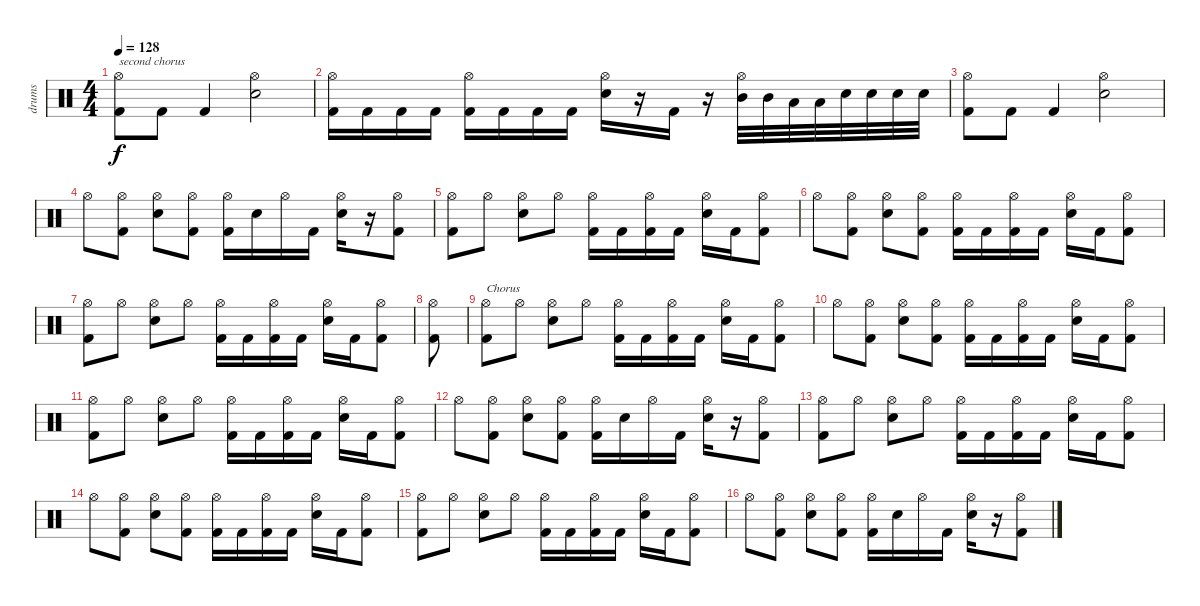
\track ("drums" "drums") {instrument percussion}
\staff {score}
\articulation defaults
\ts (4 4)
\tempo 128
\clef neutral
\ks c
("Hi-Hat (open)" "Kick (hit) 2").8{txt "second chorus" dy f} "Kick (hit) 2".8 "Kick (hit) 2".4 ("Hi-Hat (open)" "Snare (hit) 2").2 |
("Hi-Hat (open)" "Kick (hit) 2").16 "Kick (hit) 2".16 "Kick (hit) 2".16 "Kick (hit) 2".16 ("Hi-Hat (open)" "Kick (hit) 2").16 "Kick (hit) 2".16 "Kick (hit) 2".16 "Kick (hit) 2".16 ("Hi-Hat (open)" "Snare (hit) 2").16 r.16 "Kick (hit) 2".16 r.16 ("Hi-Hat (open)" "Mid Tom (hit)").32 "Mid Tom (hit)".32 "Low Tom (hit)".32 "Low Tom (hit)".32 "Snare (hit) 2".32 "Snare (hit) 2".32 "Snare (hit) 2".32 "Snare (hit) 2".32 |
("Hi-Hat (open)" "Kick (hit) 2").8 "Kick (hit) 2".8 "Kick (hit) 2".4 ("Hi-Hat (open)" "Snare (hit) 2").2 |
"Hi-Hat (open)".8 ("Hi-Hat (open)" "Kick (hit) 2").8 ("Hi-Hat (open)" "Snare (hit) 2").8 ("Hi-Hat (open)" "Kick (hit) 2").8 ("Hi-Hat (open)" "Kick (hit) 2").16 "Snare (hit) 2".16 "Hi-Hat (open)".16 "Kick (hit) 2".16 ("Hi-Hat (open)" "Snare (hit) 2").16 r.16 ("Hi-Hat (open)" "Kick (hit) 2").8 |
("Hi-Hat (open)" "Kick (hit) 2").8 "Hi-Hat (open)".8 ("Hi-Hat (open)" "Snare (hit) 2").8 "Hi-Hat (open)".8 ("Hi-Hat (open)" "Kick (hit) 2").16 "Kick (hit) 2".16 ("Hi-Hat (open)" "Kick (hit) 2").16 "Kick (hit) 2".16 ("Hi-Hat (open)" "Snare (hit) 2").16 "Kick (hit) 2".16 ("Hi-Hat (open)" "Kick (hit) 2").8 |
"Hi-Hat (open)".8 ("Hi-Hat (open)" "Kick (hit) 2").8 ("Hi-Hat (open)" "Snare (hit) 2").8 ("Hi-Hat (open)" "Kick (hit) 2").8 ("Hi-Hat (open)" "Kick (hit) 2").16 "Kick (hit) 2".16 ("Hi-Hat (open)" "Kick (hit) 2").16 "Kick (hit) 2".16 ("Hi-Hat (open)" "Snare (hit) 2").16 "Kick (hit) 2".16 ("Hi-Hat (open)" "Kick (hit) 2").8 |
("Hi-Hat (open)" "Kick (hit) 2").8 "Hi-Hat (open)".8 ("Hi-Hat (open)" "Snare (hit) 2").8 "Hi-Hat (open)".8 ("Hi-Hat (open)" "Kick (hit) 2").16 "Kick (hit) 2".16 ("Hi-Hat (open)" "Kick (hit) 2").16 "Kick (hit) 2".16 ("Hi-Hat (open)" "Snare (hit) 2").16 "Kick (hit) 2".16 ("Hi-Hat (open)" "Kick (hit) 2").8 |
("Hi-Hat (open)" "Kick (hit) 2").8 |
("Hi-Hat (open)" "Kick (hit) 2").8{txt "Chorus"} "Hi-Hat (open)".8 ("Hi-Hat (open)" "Snare (hit) 2").8 "Hi-Hat (open)".8 ("Hi-Hat (open)" "Kick (hit) 2").16 "Kick (hit) 2".16 ("Hi-Hat (open)" "Kick (hit) 2").16 "Kick (hit) 2".16 ("Hi-Hat (open)" "Snare (hit) 2").16 "Kick (hit) 2".16 ("Hi-Hat (open)" "Kick (hit) 2").8 |
"Hi-Hat (open)".8 ("Hi-Hat (open)" "Kick (hit) 2").8 ("Hi-Hat (open)" "Snare (hit) 2").8 ("Hi-Hat (open)" "Kick (hit) 2").8 ("Hi-Hat (open)" "Kick (hit) 2").16 "Kick (hit) 2".16 ("Hi-Hat (open)" "Kick (hit) 2").16 "Kick (hit) 2".16 ("Hi-Hat (open)" "Snare (hit) 2").16 "Kick (hit) 2".16 ("Hi-Hat (open)" "Kick (hit) 2").8 |
("Hi-Hat (open)" "Kick (hit) 2").8 "Hi-Hat (open)".8 ("Hi-Hat (open)" "Snare (hit) 2").8 "Hi-Hat (open)".8 ("Hi-Hat (open)" "Kick (hit) 2").16 "Kick (hit) 2".16 ("Hi-Hat (open)" "Kick (hit) 2").16 "Kick (hit) 2".16 ("Hi-Hat (open)" "Snare (hit) 2").16 "Kick (hit) 2".16 ("Hi-Hat (open)" "Kick (hit) 2").8 |
"Hi-Hat (open)".8 ("Hi-Hat (open)" "Kick (hit) 2").8 ("Hi-Hat (open)" "Snare (hit) 2").8 ("Hi-Hat (open)" "Kick (hit) 2").8 ("Hi-Hat (open)" "Kick (hit) 2").16 "Snare (hit) 2".16 "Hi-Hat (open)".16 "Kick (hit) 2".16 ("Hi-Hat (open)" "Snare (hit) 2").16 r.16 ("Hi-Hat (open)" "Kick (hit) 2").8 |
("Hi-Hat (open)" "Kick (hit) 2").8 "Hi-Hat (open)".8 ("Hi-Hat (open)" "Snare (hit) 2").8 "Hi-Hat (open)".8 ("Hi-Hat (open)" "Kick (hit) 2").16 "Kick (hit) 2".16 ("Hi-Hat (open)" "Kick (hit) 2").16 "Kick (hit) 2".16 ("Hi-Hat (open)" "Snare (hit) 2").16 "Kick (hit) 2".16 ("Hi-Hat (open)" "Kick (hit) 2").8 |
"Hi-Hat (open)".8 ("Hi-Hat (open)" "Kick (hit) 2").8 ("Hi-Hat (open)" "Snare (hit) 2").8 ("Hi-Hat (open)" "Kick (hit) 2").8 ("Hi-Hat (open)" "Kick (hit) 2").16 "Kick (hit) 2".16 ("Hi-Hat (open)" "Kick (hit) 2").16 "Kick (hit) 2".16 ("Hi-Hat (open)" "Snare (hit) 2").16 "Kick (hit) 2".16 ("Hi-Hat (open)" "Kick (hit) 2").8 |
("Hi-Hat (open)" "Kick (hit) 2").8 "Hi-Hat (open)".8 ("Hi-Hat (open)" "Snare (hit) 2").8 "Hi-Hat (open)".8 ("Hi-Hat (open)" "Kick (hit) 2").16 "Kick (hit) 2".16 ("Hi-Hat (open)" "Kick (hit) 2").16 "Kick (hit) 2".16 ("Hi-Hat (open)" "Snare (hit) 2").16 "Kick (hit) 2".16 ("Hi-Hat (open)" "Kick (hit) 2").8 |
"Hi-Hat (open)".8 ("Hi-Hat (open)" "Kick (hit) 2").8 ("Hi-Hat (open)" "Snare (hit) 2").8 ("Hi-Hat (open)" "Kick (hit) 2").8 ("Hi-Hat (open)" "Kick (hit) 2").16 "Snare (hit) 2".16 "Hi-Hat (open)".16 "Kick (hit) 2".16 ("Hi-Hat (open)" "Snare (hit) 2").16 r.16 ("Hi-Hat (open)" "Kick (hit) 2").8
